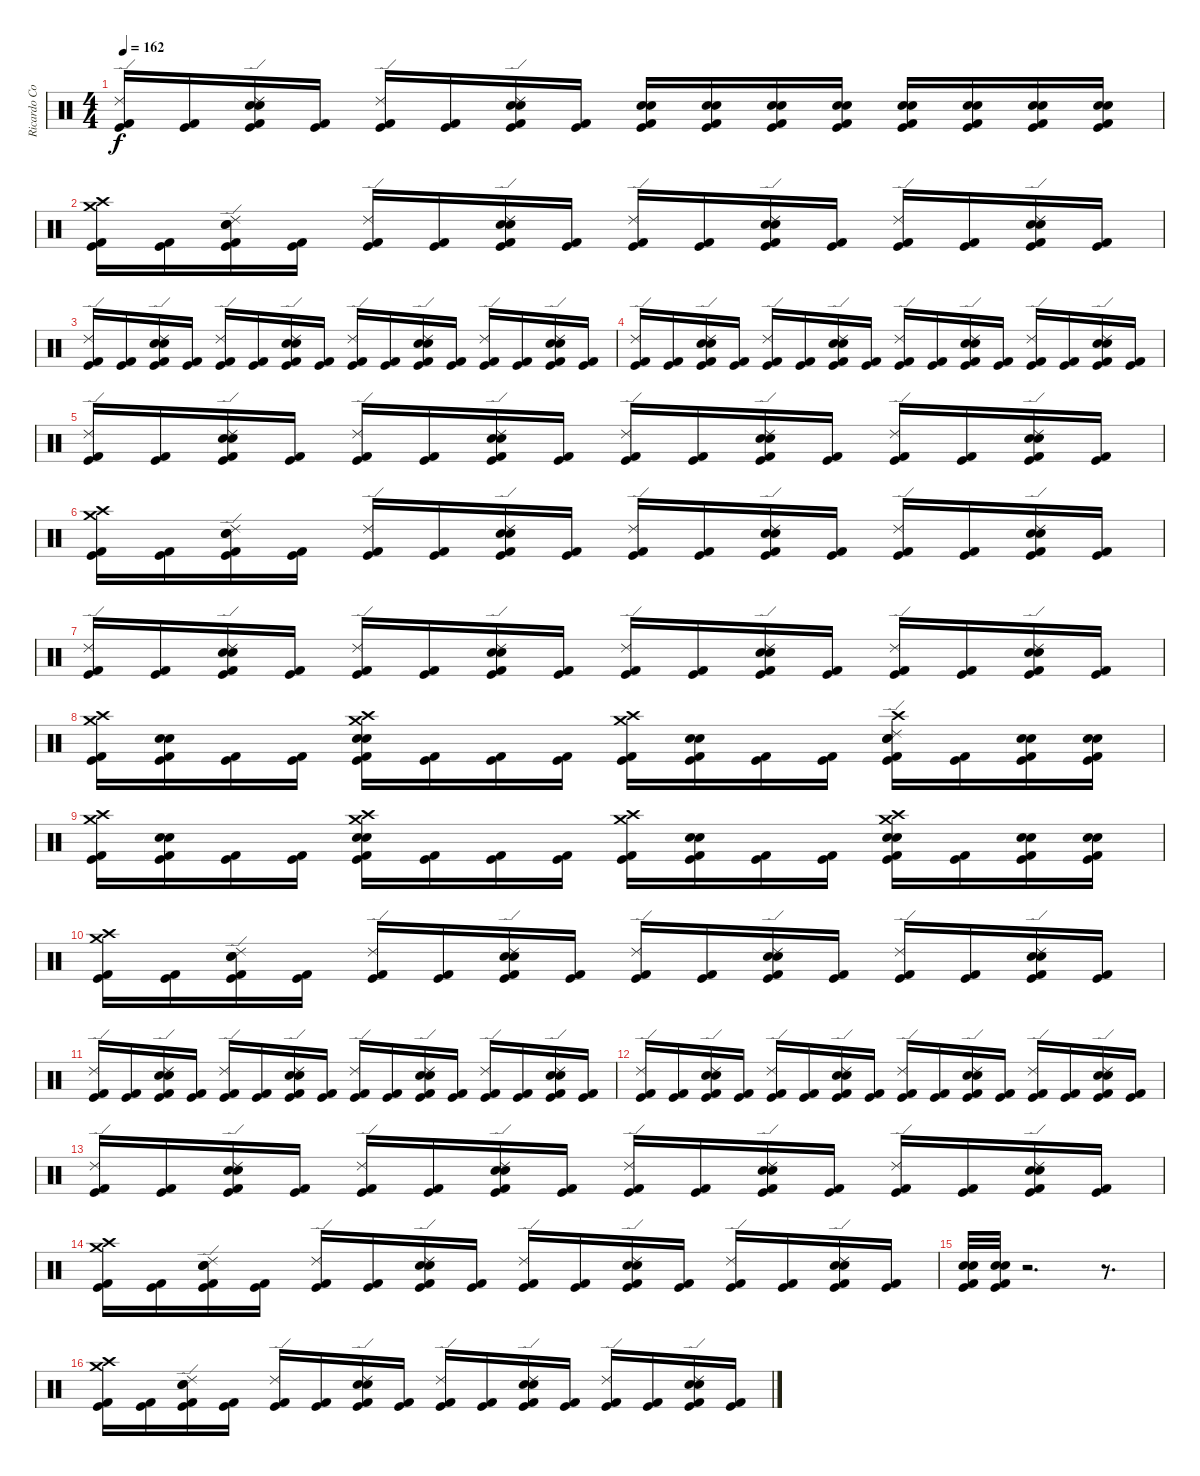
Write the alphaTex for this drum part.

\track ("Ricardo Confessori" "Ricardo Co") {instrument percussion}
\staff {score}
\articulation defaults
\ts (4 4)
\tempo 162
\clef neutral
\ks c
("Ride (edge) 2" "Kick (hit) 2" "Kick (hit)").16{dy f} ("Kick (hit) 2" "Kick (hit)").16 ("Snare (hit) 2" "Electric Snare (hit)" "Ride (edge) 2" "Kick (hit) 2" "Kick (hit)").16 ("Kick (hit) 2" "Kick (hit)").16 ("Ride (edge) 2" "Kick (hit) 2" "Kick (hit)").16 ("Kick (hit) 2" "Kick (hit)").16 ("Electric Snare (hit)" "Snare (hit) 2" "Ride (edge) 2" "Kick (hit) 2" "Kick (hit)").16 ("Kick (hit) 2" "Kick (hit)").16 ("Snare (hit) 2" "Electric Snare (hit)" "Kick (hit) 2" "Kick (hit)").16 ("Snare (hit) 2" "Electric Snare (hit)" "Kick (hit) 2" "Kick (hit)").16 ("Snare (hit) 2" "Electric Snare (hit)" "Kick (hit) 2" "Kick (hit)").16 ("Snare (hit) 2" "Electric Snare (hit)" "Kick (hit) 2" "Kick (hit)").16 ("Snare (hit) 2" "Electric Snare (hit)" "Kick (hit) 2" "Kick (hit)").16 ("Snare (hit) 2" "Electric Snare (hit)" "Kick (hit) 2" "Kick (hit)").16 ("Snare (hit) 2" "Electric Snare (hit)" "Kick (hit) 2" "Kick (hit)").16 ("Snare (hit) 2" "Electric Snare (hit)" "Kick (hit) 2" "Kick (hit)").16 |
("Crash high (hit)" "Crash medium (hit)" "Kick (hit) 2" "Kick (hit)").16 ("Kick (hit) 2" "Kick (hit)").16 ("Ride (edge) 2" "Snare (hit) 2" "Electric Snare (hit)" "Kick (hit) 2" "Kick (hit)").16 ("Kick (hit) 2" "Kick (hit)").16 ("Ride (edge) 2" "Kick (hit) 2" "Kick (hit)").16 ("Kick (hit) 2" "Kick (hit)").16 ("Ride (edge) 2" "Electric Snare (hit)" "Snare (hit) 2" "Kick (hit) 2" "Kick (hit)").16 ("Kick (hit) 2" "Kick (hit)").16 ("Ride (edge) 2" "Kick (hit) 2" "Kick (hit)").16 ("Kick (hit) 2" "Kick (hit)").16 ("Ride (edge) 2" "Snare (hit) 2" "Electric Snare (hit)" "Kick (hit) 2" "Kick (hit)").16 ("Kick (hit) 2" "Kick (hit)").16 ("Ride (edge) 2" "Kick (hit) 2" "Kick (hit)").16 ("Kick (hit) 2" "Kick (hit)").16 ("Ride (edge) 2" "Electric Snare (hit)" "Snare (hit) 2" "Kick (hit) 2" "Kick (hit)").16 ("Kick (hit) 2" "Kick (hit)").16 |
("Ride (edge) 2" "Kick (hit) 2" "Kick (hit)").16 ("Kick (hit) 2" "Kick (hit)").16 ("Ride (edge) 2" "Snare (hit) 2" "Electric Snare (hit)" "Kick (hit) 2" "Kick (hit)").16 ("Kick (hit) 2" "Kick (hit)").16 ("Ride (edge) 2" "Kick (hit) 2" "Kick (hit)").16 ("Kick (hit) 2" "Kick (hit)").16 ("Ride (edge) 2" "Electric Snare (hit)" "Snare (hit) 2" "Kick (hit) 2" "Kick (hit)").16 ("Kick (hit) 2" "Kick (hit)").16 ("Ride (edge) 2" "Kick (hit) 2" "Kick (hit)").16 ("Kick (hit) 2" "Kick (hit)").16 ("Ride (edge) 2" "Snare (hit) 2" "Electric Snare (hit)" "Kick (hit) 2" "Kick (hit)").16 ("Kick (hit) 2" "Kick (hit)").16 ("Ride (edge) 2" "Kick (hit) 2" "Kick (hit)").16 ("Kick (hit) 2" "Kick (hit)").16 ("Ride (edge) 2" "Electric Snare (hit)" "Snare (hit) 2" "Kick (hit) 2" "Kick (hit)").16 ("Kick (hit) 2" "Kick (hit)").16 |
("Ride (edge) 2" "Kick (hit) 2" "Kick (hit)").16 ("Kick (hit) 2" "Kick (hit)").16 ("Ride (edge) 2" "Snare (hit) 2" "Electric Snare (hit)" "Kick (hit) 2" "Kick (hit)").16 ("Kick (hit) 2" "Kick (hit)").16 ("Ride (edge) 2" "Kick (hit) 2" "Kick (hit)").16 ("Kick (hit) 2" "Kick (hit)").16 ("Ride (edge) 2" "Electric Snare (hit)" "Snare (hit) 2" "Kick (hit) 2" "Kick (hit)").16 ("Kick (hit) 2" "Kick (hit)").16 ("Ride (edge) 2" "Kick (hit) 2" "Kick (hit)").16 ("Kick (hit) 2" "Kick (hit)").16 ("Ride (edge) 2" "Snare (hit) 2" "Electric Snare (hit)" "Kick (hit) 2" "Kick (hit)").16 ("Kick (hit) 2" "Kick (hit)").16 ("Ride (edge) 2" "Kick (hit) 2" "Kick (hit)").16 ("Kick (hit) 2" "Kick (hit)").16 ("Ride (edge) 2" "Electric Snare (hit)" "Snare (hit) 2" "Kick (hit) 2" "Kick (hit)").16 ("Kick (hit) 2" "Kick (hit)").16 |
("Ride (edge) 2" "Kick (hit) 2" "Kick (hit)").16 ("Kick (hit) 2" "Kick (hit)").16 ("Ride (edge) 2" "Snare (hit) 2" "Electric Snare (hit)" "Kick (hit) 2" "Kick (hit)").16 ("Kick (hit) 2" "Kick (hit)").16 ("Ride (edge) 2" "Kick (hit) 2" "Kick (hit)").16 ("Kick (hit) 2" "Kick (hit)").16 ("Ride (edge) 2" "Electric Snare (hit)" "Snare (hit) 2" "Kick (hit) 2" "Kick (hit)").16 ("Kick (hit) 2" "Kick (hit)").16 ("Ride (edge) 2" "Kick (hit) 2" "Kick (hit)").16 ("Kick (hit) 2" "Kick (hit)").16 ("Ride (edge) 2" "Snare (hit) 2" "Electric Snare (hit)" "Kick (hit) 2" "Kick (hit)").16 ("Kick (hit) 2" "Kick (hit)").16 ("Ride (edge) 2" "Kick (hit) 2" "Kick (hit)").16 ("Kick (hit) 2" "Kick (hit)").16 ("Ride (edge) 2" "Electric Snare (hit)" "Snare (hit) 2" "Kick (hit) 2" "Kick (hit)").16 ("Kick (hit) 2" "Kick (hit)").16 |
("Crash high (hit)" "Crash medium (hit)" "Kick (hit) 2" "Kick (hit)").16 ("Kick (hit) 2" "Kick (hit)").16 ("Ride (edge) 2" "Snare (hit) 2" "Electric Snare (hit)" "Kick (hit) 2" "Kick (hit)").16 ("Kick (hit) 2" "Kick (hit)").16 ("Ride (edge) 2" "Kick (hit) 2" "Kick (hit)").16 ("Kick (hit) 2" "Kick (hit)").16 ("Ride (edge) 2" "Electric Snare (hit)" "Snare (hit) 2" "Kick (hit) 2" "Kick (hit)").16 ("Kick (hit) 2" "Kick (hit)").16 ("Ride (edge) 2" "Kick (hit) 2" "Kick (hit)").16 ("Kick (hit) 2" "Kick (hit)").16 ("Ride (edge) 2" "Snare (hit) 2" "Electric Snare (hit)" "Kick (hit) 2" "Kick (hit)").16 ("Kick (hit) 2" "Kick (hit)").16 ("Ride (edge) 2" "Kick (hit) 2" "Kick (hit)").16 ("Kick (hit) 2" "Kick (hit)").16 ("Ride (edge) 2" "Electric Snare (hit)" "Snare (hit) 2" "Kick (hit) 2" "Kick (hit)").16 ("Kick (hit) 2" "Kick (hit)").16 |
("Ride (edge) 2" "Kick (hit) 2" "Kick (hit)").16 ("Kick (hit) 2" "Kick (hit)").16 ("Ride (edge) 2" "Snare (hit) 2" "Electric Snare (hit)" "Kick (hit) 2" "Kick (hit)").16 ("Kick (hit) 2" "Kick (hit)").16 ("Ride (edge) 2" "Kick (hit) 2" "Kick (hit)").16 ("Kick (hit) 2" "Kick (hit)").16 ("Ride (edge) 2" "Electric Snare (hit)" "Snare (hit) 2" "Kick (hit) 2" "Kick (hit)").16 ("Kick (hit) 2" "Kick (hit)").16 ("Ride (edge) 2" "Kick (hit) 2" "Kick (hit)").16 ("Kick (hit) 2" "Kick (hit)").16 ("Ride (edge) 2" "Snare (hit) 2" "Electric Snare (hit)" "Kick (hit) 2" "Kick (hit)").16 ("Kick (hit) 2" "Kick (hit)").16 ("Ride (edge) 2" "Kick (hit) 2" "Kick (hit)").16 ("Kick (hit) 2" "Kick (hit)").16 ("Ride (edge) 2" "Electric Snare (hit)" "Snare (hit) 2" "Kick (hit) 2" "Kick (hit)").16 ("Kick (hit) 2" "Kick (hit)").16 |
("Crash high (hit)" "Crash medium (hit)" "Kick (hit) 2" "Kick (hit)").16 ("Electric Snare (hit)" "Snare (hit) 2" "Kick (hit) 2" "Kick (hit)").16 ("Kick (hit) 2" "Kick (hit)").16 ("Kick (hit) 2" "Kick (hit)").16 ("Electric Snare (hit)" "Snare (hit) 2" "Crash high (hit)" "Crash medium (hit)" "Kick (hit) 2" "Kick (hit)").16 ("Kick (hit) 2" "Kick (hit)").16 ("Kick (hit) 2" "Kick (hit)").16 ("Kick (hit) 2" "Kick (hit)").16 ("Crash high (hit)" "Crash medium (hit)" "Kick (hit) 2" "Kick (hit)").16 ("Electric Snare (hit)" "Snare (hit) 2" "Kick (hit) 2" "Kick (hit)").16 ("Kick (hit) 2" "Kick (hit)").16 ("Kick (hit) 2" "Kick (hit)").16 ("Electric Snare (hit)" "Crash high (hit)" "Snare (hit) 2" "Ride (edge) 2" "Kick (hit) 2" "Kick (hit)").16 ("Kick (hit) 2" "Kick (hit)").16 ("Electric Snare (hit)" "Snare (hit) 2" "Kick (hit) 2" "Kick (hit)").16 ("Electric Snare (hit)" "Snare (hit) 2" "Kick (hit) 2" "Kick (hit)").16 |
("Crash high (hit)" "Crash medium (hit)" "Kick (hit) 2" "Kick (hit)").16 ("Electric Snare (hit)" "Snare (hit) 2" "Kick (hit) 2" "Kick (hit)").16 ("Kick (hit) 2" "Kick (hit)").16 ("Kick (hit) 2" "Kick (hit)").16 ("Crash high (hit)" "Electric Snare (hit)" "Snare (hit) 2" "Crash medium (hit)" "Kick (hit) 2" "Kick (hit)").16 ("Kick (hit) 2" "Kick (hit)").16 ("Kick (hit) 2" "Kick (hit)").16 ("Kick (hit) 2" "Kick (hit)").16 ("Crash high (hit)" "Crash medium (hit)" "Kick (hit) 2" "Kick (hit)").16 ("Electric Snare (hit)" "Snare (hit) 2" "Kick (hit) 2" "Kick (hit)").16 ("Kick (hit) 2" "Kick (hit)").16 ("Kick (hit) 2" "Kick (hit)").16 ("Electric Snare (hit)" "Snare (hit) 2" "Crash high (hit)" "Crash medium (hit)" "Kick (hit) 2" "Kick (hit)").16 ("Kick (hit) 2" "Kick (hit)").16 ("Electric Snare (hit)" "Snare (hit) 2" "Kick (hit) 2" "Kick (hit)").16 ("Electric Snare (hit)" "Snare (hit) 2" "Kick (hit) 2" "Kick (hit)").16 |
("Crash high (hit)" "Crash medium (hit)" "Kick (hit) 2" "Kick (hit)").16 ("Kick (hit) 2" "Kick (hit)").16 ("Ride (edge) 2" "Snare (hit) 2" "Electric Snare (hit)" "Kick (hit) 2" "Kick (hit)").16 ("Kick (hit) 2" "Kick (hit)").16 ("Ride (edge) 2" "Kick (hit) 2" "Kick (hit)").16 ("Kick (hit) 2" "Kick (hit)").16 ("Ride (edge) 2" "Electric Snare (hit)" "Snare (hit) 2" "Kick (hit) 2" "Kick (hit)").16 ("Kick (hit) 2" "Kick (hit)").16 ("Ride (edge) 2" "Kick (hit) 2" "Kick (hit)").16 ("Kick (hit) 2" "Kick (hit)").16 ("Ride (edge) 2" "Snare (hit) 2" "Electric Snare (hit)" "Kick (hit) 2" "Kick (hit)").16 ("Kick (hit) 2" "Kick (hit)").16 ("Ride (edge) 2" "Kick (hit) 2" "Kick (hit)").16 ("Kick (hit) 2" "Kick (hit)").16 ("Ride (edge) 2" "Electric Snare (hit)" "Snare (hit) 2" "Kick (hit) 2" "Kick (hit)").16 ("Kick (hit) 2" "Kick (hit)").16 |
("Ride (edge) 2" "Kick (hit) 2" "Kick (hit)").16 ("Kick (hit) 2" "Kick (hit)").16 ("Ride (edge) 2" "Snare (hit) 2" "Electric Snare (hit)" "Kick (hit) 2" "Kick (hit)").16 ("Kick (hit) 2" "Kick (hit)").16 ("Ride (edge) 2" "Kick (hit) 2" "Kick (hit)").16 ("Kick (hit) 2" "Kick (hit)").16 ("Ride (edge) 2" "Electric Snare (hit)" "Snare (hit) 2" "Kick (hit) 2" "Kick (hit)").16 ("Kick (hit) 2" "Kick (hit)").16 ("Ride (edge) 2" "Kick (hit) 2" "Kick (hit)").16 ("Kick (hit) 2" "Kick (hit)").16 ("Ride (edge) 2" "Snare (hit) 2" "Electric Snare (hit)" "Kick (hit) 2" "Kick (hit)").16 ("Kick (hit) 2" "Kick (hit)").16 ("Ride (edge) 2" "Kick (hit) 2" "Kick (hit)").16 ("Kick (hit) 2" "Kick (hit)").16 ("Ride (edge) 2" "Electric Snare (hit)" "Snare (hit) 2" "Kick (hit) 2" "Kick (hit)").16 ("Kick (hit) 2" "Kick (hit)").16 |
("Ride (edge) 2" "Kick (hit) 2" "Kick (hit)").16 ("Kick (hit) 2" "Kick (hit)").16 ("Ride (edge) 2" "Snare (hit) 2" "Electric Snare (hit)" "Kick (hit) 2" "Kick (hit)").16 ("Kick (hit) 2" "Kick (hit)").16 ("Ride (edge) 2" "Kick (hit) 2" "Kick (hit)").16 ("Kick (hit) 2" "Kick (hit)").16 ("Ride (edge) 2" "Electric Snare (hit)" "Snare (hit) 2" "Kick (hit) 2" "Kick (hit)").16 ("Kick (hit) 2" "Kick (hit)").16 ("Ride (edge) 2" "Kick (hit) 2" "Kick (hit)").16 ("Kick (hit) 2" "Kick (hit)").16 ("Ride (edge) 2" "Snare (hit) 2" "Electric Snare (hit)" "Kick (hit) 2" "Kick (hit)").16 ("Kick (hit) 2" "Kick (hit)").16 ("Ride (edge) 2" "Kick (hit) 2" "Kick (hit)").16 ("Kick (hit) 2" "Kick (hit)").16 ("Ride (edge) 2" "Electric Snare (hit)" "Snare (hit) 2" "Kick (hit) 2" "Kick (hit)").16 ("Kick (hit) 2" "Kick (hit)").16 |
("Ride (edge) 2" "Kick (hit) 2" "Kick (hit)").16 ("Kick (hit) 2" "Kick (hit)").16 ("Ride (edge) 2" "Snare (hit) 2" "Electric Snare (hit)" "Kick (hit) 2" "Kick (hit)").16 ("Kick (hit) 2" "Kick (hit)").16 ("Ride (edge) 2" "Kick (hit) 2" "Kick (hit)").16 ("Kick (hit) 2" "Kick (hit)").16 ("Ride (edge) 2" "Electric Snare (hit)" "Snare (hit) 2" "Kick (hit) 2" "Kick (hit)").16 ("Kick (hit) 2" "Kick (hit)").16 ("Ride (edge) 2" "Kick (hit) 2" "Kick (hit)").16 ("Kick (hit) 2" "Kick (hit)").16 ("Ride (edge) 2" "Snare (hit) 2" "Electric Snare (hit)" "Kick (hit) 2" "Kick (hit)").16 ("Kick (hit) 2" "Kick (hit)").16 ("Ride (edge) 2" "Kick (hit) 2" "Kick (hit)").16 ("Kick (hit) 2" "Kick (hit)").16 ("Ride (edge) 2" "Electric Snare (hit)" "Snare (hit) 2" "Kick (hit) 2" "Kick (hit)").16 ("Kick (hit) 2" "Kick (hit)").16 |
("Crash high (hit)" "Crash medium (hit)" "Kick (hit) 2" "Kick (hit)").16 ("Kick (hit) 2" "Kick (hit)").16 ("Ride (edge) 2" "Snare (hit) 2" "Electric Snare (hit)" "Kick (hit) 2" "Kick (hit)").16 ("Kick (hit) 2" "Kick (hit)").16 ("Ride (edge) 2" "Kick (hit) 2" "Kick (hit)").16 ("Kick (hit) 2" "Kick (hit)").16 ("Ride (edge) 2" "Electric Snare (hit)" "Snare (hit) 2" "Kick (hit) 2" "Kick (hit)").16 ("Kick (hit) 2" "Kick (hit)").16 ("Ride (edge) 2" "Kick (hit) 2" "Kick (hit)").16 ("Kick (hit) 2" "Kick (hit)").16 ("Ride (edge) 2" "Snare (hit) 2" "Electric Snare (hit)" "Kick (hit) 2" "Kick (hit)").16 ("Kick (hit) 2" "Kick (hit)").16 ("Ride (edge) 2" "Kick (hit) 2" "Kick (hit)").16 ("Kick (hit) 2" "Kick (hit)").16 ("Ride (edge) 2" "Electric Snare (hit)" "Snare (hit) 2" "Kick (hit) 2" "Kick (hit)").16 ("Kick (hit) 2" "Kick (hit)").16 |
("Kick (hit) 2" "Kick (hit)" "Electric Snare (hit)" "Snare (hit) 2").32 ("Kick (hit) 2" "Kick (hit)" "Electric Snare (hit)" "Snare (hit) 2").32 r.2{d} r.8{d} |
("Crash high (hit)" "Crash medium (hit)" "Kick (hit) 2" "Kick (hit)").16 ("Kick (hit) 2" "Kick (hit)").16 ("Ride (edge) 2" "Snare (hit) 2" "Electric Snare (hit)" "Kick (hit) 2" "Kick (hit)").16 ("Kick (hit) 2" "Kick (hit)").16 ("Ride (edge) 2" "Kick (hit) 2" "Kick (hit)").16 ("Kick (hit) 2" "Kick (hit)").16 ("Ride (edge) 2" "Electric Snare (hit)" "Snare (hit) 2" "Kick (hit) 2" "Kick (hit)").16 ("Kick (hit) 2" "Kick (hit)").16 ("Ride (edge) 2" "Kick (hit) 2" "Kick (hit)").16 ("Kick (hit) 2" "Kick (hit)").16 ("Ride (edge) 2" "Snare (hit) 2" "Electric Snare (hit)" "Kick (hit) 2" "Kick (hit)").16 ("Kick (hit) 2" "Kick (hit)").16 ("Ride (edge) 2" "Kick (hit) 2" "Kick (hit)").16 ("Kick (hit) 2" "Kick (hit)").16 ("Ride (edge) 2" "Electric Snare (hit)" "Snare (hit) 2" "Kick (hit) 2" "Kick (hit)").16 ("Kick (hit) 2" "Kick (hit)").16
